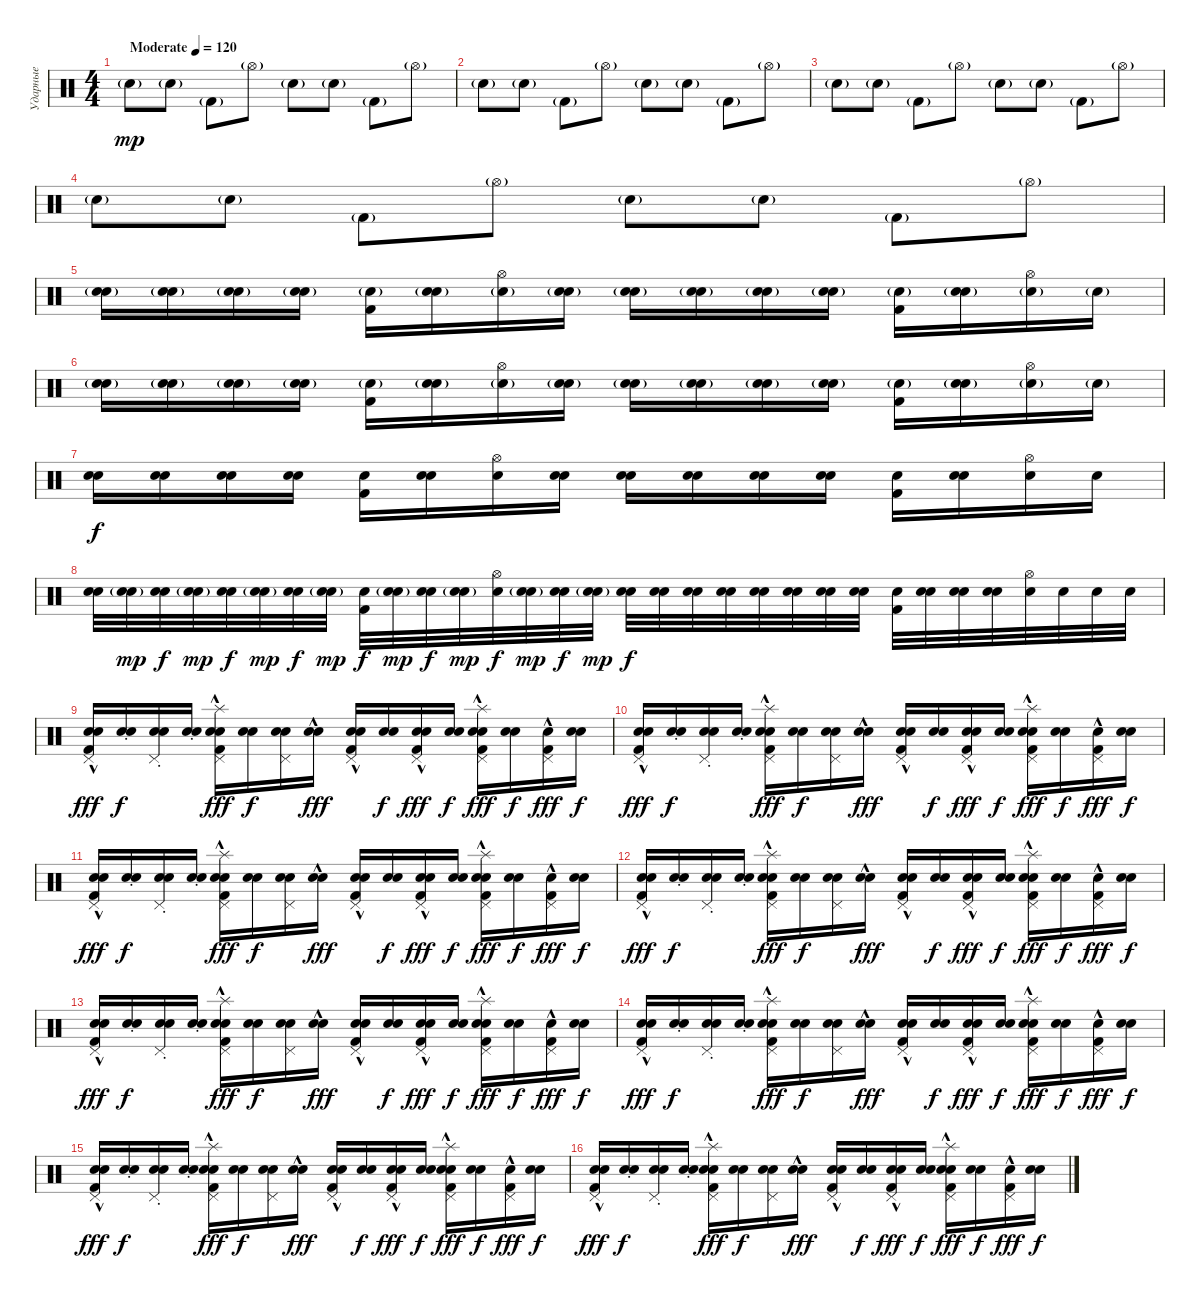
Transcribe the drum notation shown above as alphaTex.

\track ("Ударные" "Ударные") {instrument percussion}
\staff {score}
\articulation defaults
\ts (4 4)
\tempo (120 "Moderate")
\clef neutral
\ks c "Snare (hit) 2"{g}.8{dy mp} "Snare (hit)"{g}.8 "Kick (hit) 2"{g}.8 "Hi-Hat (open)"{g}.8 "Snare (hit) 2"{g}.8 "Snare (hit)"{g}.8 "Kick (hit) 2"{g}.8 "Hi-Hat (open)"{g}.8
|
"Snare (hit) 2"{g}.8 "Snare (hit)"{g}.8 "Kick (hit) 2"{g}.8 "Hi-Hat (open)"{g}.8 "Snare (hit) 2"{g}.8 "Snare (hit)"{g}.8 "Kick (hit) 2"{g}.8 "Hi-Hat (open)"{g}.8 |
"Snare (hit) 2"{g}.8 "Snare (hit)"{g}.8 "Kick (hit) 2"{g}.8 "Hi-Hat (open)"{g}.8 "Snare (hit) 2"{g}.8 "Snare (hit)"{g}.8 "Kick (hit) 2"{g}.8 "Hi-Hat (open)"{g}.8 |
"Snare (hit) 2"{g}.8 "Snare (hit)"{g}.8 "Kick (hit) 2"{g}.8 "Hi-Hat (open)"{g}.8 "Snare (hit) 2"{g}.8 "Snare (hit)"{g}.8 "Kick (hit) 2"{g}.8 "Hi-Hat (open)"{g}.8 |
("Electric Snare (hit)"{g} "Snare (hit) 2").16 ("Electric Snare (hit)"{g} "Snare (hit)").16 ("Electric Snare (hit)"{g} "Snare (hit)").16 ("Electric Snare (hit)"{g} "Snare (hit)").16 ("Electric Snare (hit)"{g} "Kick (hit) 2").16 ("Electric Snare (hit)"{g} "Snare (hit)").16 ("Electric Snare (hit)"{g} "Hi-Hat (open)").16 ("Electric Snare (hit)"{g} "Snare (hit)").16 ("Electric Snare (hit)"{g} "Snare (hit) 2").16 ("Electric Snare (hit)"{g} "Snare (hit)").16 ("Electric Snare (hit)"{g} "Snare (hit)").16 ("Electric Snare (hit)"{g} "Snare (hit)").16 ("Electric Snare (hit)"{g} "Kick (hit) 2").16 ("Electric Snare (hit)"{g} "Snare (hit)").16 ("Electric Snare (hit)"{g} "Hi-Hat (open)").16 "Electric Snare (hit)"{g}.16 |
("Electric Snare (hit)"{g} "Snare (hit) 2").16 ("Electric Snare (hit)"{g} "Snare (hit)").16 ("Electric Snare (hit)"{g} "Snare (hit)").16 ("Electric Snare (hit)"{g} "Snare (hit)").16 ("Electric Snare (hit)"{g} "Kick (hit) 2").16 ("Electric Snare (hit)"{g} "Snare (hit)").16 ("Electric Snare (hit)"{g} "Hi-Hat (open)").16 ("Electric Snare (hit)"{g} "Snare (hit)").16 ("Electric Snare (hit)"{g} "Snare (hit) 2").16 ("Electric Snare (hit)"{g} "Snare (hit)").16 ("Electric Snare (hit)"{g} "Snare (hit)").16 ("Electric Snare (hit)"{g} "Snare (hit)").16 ("Electric Snare (hit)"{g} "Kick (hit) 2").16 ("Electric Snare (hit)"{g} "Snare (hit)").16 ("Electric Snare (hit)"{g} "Hi-Hat (open)").16 "Electric Snare (hit)"{g}.16 |
("Electric Snare (hit)" "Snare (hit) 2").16{dy f} ("Electric Snare (hit)" "Snare (hit)").16 ("Electric Snare (hit)" "Snare (hit)").16 ("Electric Snare (hit)" "Snare (hit)").16 ("Electric Snare (hit)" "Kick (hit) 2").16 ("Electric Snare (hit)" "Snare (hit)").16 ("Electric Snare (hit)" "Hi-Hat (open)").16 ("Electric Snare (hit)" "Snare (hit)").16 ("Electric Snare (hit)" "Snare (hit) 2").16 ("Electric Snare (hit)" "Snare (hit)").16 ("Electric Snare (hit)" "Snare (hit)").16 ("Electric Snare (hit)" "Snare (hit)").16 ("Electric Snare (hit)" "Kick (hit) 2").16 ("Electric Snare (hit)" "Snare (hit)").16 ("Electric Snare (hit)" "Hi-Hat (open)").16 "Electric Snare (hit)".16 |
("Electric Snare (hit)" "Snare (hit) 2").32 ("Electric Snare (hit)"{g} "Snare (hit)").32{dy mp} ("Electric Snare (hit)" "Snare (hit)").32{dy f} ("Electric Snare (hit)"{g} "Snare (hit)").32{dy mp} ("Electric Snare (hit)" "Snare (hit)").32{dy f} ("Electric Snare (hit)"{g} "Snare (hit)").32{dy mp} ("Electric Snare (hit)" "Snare (hit)").32{dy f} ("Electric Snare (hit)"{g} "Snare (hit)").32{dy mp} ("Electric Snare (hit)" "Kick (hit) 2").32{dy f} ("Electric Snare (hit)"{g} "Snare (hit)").32{dy mp} ("Electric Snare (hit)" "Snare (hit)").32{dy f} ("Electric Snare (hit)"{g} "Snare (hit)").32{dy mp} ("Electric Snare (hit)" "Hi-Hat (open)").32{dy f} ("Electric Snare (hit)"{g} "Snare (hit)").32{dy mp} ("Electric Snare (hit)" "Snare (hit)").32{dy f} ("Electric Snare (hit)"{g} "Snare (hit)").32{dy mp} ("Electric Snare (hit)" "Snare (hit) 2").32{dy f} ("Electric Snare (hit)" "Snare (hit)").32 ("Electric Snare (hit)" "Snare (hit)").32 ("Electric Snare (hit)" "Snare (hit)").32 ("Electric Snare (hit)" "Snare (hit)").32 ("Electric Snare (hit)" "Snare (hit)").32 ("Electric Snare (hit)" "Snare (hit)").32 ("Electric Snare (hit)" "Snare (hit)").32 ("Electric Snare (hit)" "Kick (hit) 2").32 ("Electric Snare (hit)" "Snare (hit)").32 ("Electric Snare (hit)" "Snare (hit)").32 ("Electric Snare (hit)" "Snare (hit)").32 ("Electric Snare (hit)" "Hi-Hat (open)").32 "Electric Snare (hit)".32 "Electric Snare (hit)".32 "Electric Snare (hit)".32 |
("Electric Snare (hit)" "Pedal Hi-Hat (hit)"{hac} "Snare (hit) 2"{hac} "Kick (hit) 2"{hac}).16{dy fff} ("Electric Snare (hit)"{st} "Snare (hit)").16{dy f} ("Electric Snare (hit)"{st} "Pedal Hi-Hat (hit)" "Snare (hit)").16 ("Electric Snare (hit)"{st} "Snare (hit)").16 ("Electric Snare (hit)" "Splash (hit)" "Pedal Hi-Hat (hit)" "Snare (hit) 2"{hac} "Kick (hit) 2"{hac}).16{dy fff} ("Electric Snare (hit)" "Snare (hit)").16{dy f} ("Electric Snare (hit)" "Pedal Hi-Hat (hit)" "Snare (hit)").16 ("Electric Snare (hit)" "Snare (hit)"{hac}).16{dy fff} ("Electric Snare (hit)" "Pedal Hi-Hat (hit)" "Snare (hit) 2"{hac} "Kick (hit) 2"{hac}).16 ("Electric Snare (hit)" "Snare (hit)").16{dy f} ("Electric Snare (hit)" "Electric Snare (hit)" "Pedal Hi-Hat (hit)" "Kick (hit) 2"{hac}).16{dy fff} ("Electric Snare (hit)" "Snare (hit)").16{dy f} ("Electric Snare (hit)" "Splash (hit)"{hac} "Pedal Hi-Hat (hit)" "Snare (hit) 2"{hac} "Kick (hit) 2"{hac}).16{dy fff} ("Electric Snare (hit)" "Snare (hit)").16{dy f} ("Electric Snare (hit)" "Pedal Hi-Hat (hit)"{hac} "Kick (hit) 2"{hac}).16{dy fff} ("Electric Snare (hit)" "Snare (hit)").16{dy f} |
("Electric Snare (hit)" "Pedal Hi-Hat (hit)"{hac} "Snare (hit) 2"{hac} "Kick (hit) 2"{hac}).16{dy fff} ("Electric Snare (hit)"{st} "Snare (hit)").16{dy f} ("Electric Snare (hit)"{st} "Pedal Hi-Hat (hit)" "Snare (hit)").16 ("Electric Snare (hit)"{st} "Snare (hit)").16 ("Electric Snare (hit)" "Splash (hit)" "Pedal Hi-Hat (hit)" "Snare (hit) 2"{hac} "Kick (hit) 2"{hac}).16{dy fff} ("Electric Snare (hit)" "Snare (hit)").16{dy f} ("Electric Snare (hit)" "Pedal Hi-Hat (hit)" "Snare (hit)").16 ("Electric Snare (hit)" "Snare (hit)"{hac}).16{dy fff} ("Electric Snare (hit)" "Pedal Hi-Hat (hit)"{hac} "Snare (hit) 2"{hac} "Kick (hit) 2"{hac}).16 ("Electric Snare (hit)" "Snare (hit)").16{dy f} ("Electric Snare (hit)" "Electric Snare (hit)"{hac} "Pedal Hi-Hat (hit)"{hac} "Kick (hit) 2"{hac}).16{dy fff} ("Electric Snare (hit)" "Snare (hit)").16{dy f} ("Electric Snare (hit)" "Splash (hit)" "Pedal Hi-Hat (hit)"{hac} "Snare (hit) 2"{hac} "Kick (hit) 2"{hac}).16{dy fff} ("Electric Snare (hit)" "Snare (hit)").16{dy f} ("Electric Snare (hit)" "Pedal Hi-Hat (hit)"{hac} "Kick (hit) 2"{hac}).16{dy fff} ("Electric Snare (hit)" "Snare (hit)").16{dy f} |
("Electric Snare (hit)" "Pedal Hi-Hat (hit)"{hac} "Snare (hit) 2"{hac} "Kick (hit) 2"{hac}).16{dy fff} ("Electric Snare (hit)"{st} "Snare (hit)").16{dy f} ("Electric Snare (hit)"{st} "Pedal Hi-Hat (hit)" "Snare (hit)").16 ("Electric Snare (hit)"{st} "Snare (hit)").16 ("Electric Snare (hit)" "Splash (hit)" "Pedal Hi-Hat (hit)" "Snare (hit) 2"{hac} "Kick (hit) 2"{hac}).16{dy fff} ("Electric Snare (hit)" "Snare (hit)").16{dy f} ("Electric Snare (hit)" "Pedal Hi-Hat (hit)" "Snare (hit)").16 ("Electric Snare (hit)" "Snare (hit)"{hac}).16{dy fff} ("Electric Snare (hit)" "Pedal Hi-Hat (hit)" "Snare (hit) 2"{hac} "Kick (hit) 2"{hac}).16 ("Electric Snare (hit)" "Snare (hit)").16{dy f} ("Electric Snare (hit)" "Electric Snare (hit)" "Pedal Hi-Hat (hit)" "Kick (hit) 2"{hac}).16{dy fff} ("Electric Snare (hit)" "Snare (hit)").16{dy f} ("Electric Snare (hit)" "Splash (hit)"{hac} "Pedal Hi-Hat (hit)" "Snare (hit) 2"{hac} "Kick (hit) 2"{hac}).16{dy fff} ("Electric Snare (hit)" "Snare (hit)").16{dy f} ("Electric Snare (hit)" "Pedal Hi-Hat (hit)"{hac} "Kick (hit) 2"{hac}).16{dy fff} ("Electric Snare (hit)" "Snare (hit)").16{dy f} |
("Electric Snare (hit)" "Pedal Hi-Hat (hit)"{hac} "Snare (hit) 2"{hac} "Kick (hit) 2"{hac}).16{dy fff} ("Electric Snare (hit)"{st} "Snare (hit)").16{dy f} ("Electric Snare (hit)"{st} "Pedal Hi-Hat (hit)" "Snare (hit)").16 ("Electric Snare (hit)"{st} "Snare (hit)").16 ("Electric Snare (hit)" "Splash (hit)" "Pedal Hi-Hat (hit)" "Snare (hit) 2"{hac} "Kick (hit) 2"{hac}).16{dy fff} ("Electric Snare (hit)" "Snare (hit)").16{dy f} ("Electric Snare (hit)" "Pedal Hi-Hat (hit)" "Snare (hit)").16 ("Electric Snare (hit)" "Snare (hit)"{hac}).16{dy fff} ("Electric Snare (hit)" "Pedal Hi-Hat (hit)"{hac} "Snare (hit) 2"{hac} "Kick (hit) 2"{hac}).16 ("Electric Snare (hit)" "Snare (hit)").16{dy f} ("Electric Snare (hit)" "Electric Snare (hit)"{hac} "Pedal Hi-Hat (hit)"{hac} "Kick (hit) 2"{hac}).16{dy fff} ("Electric Snare (hit)" "Snare (hit)").16{dy f} ("Electric Snare (hit)" "Splash (hit)" "Pedal Hi-Hat (hit)"{hac} "Snare (hit) 2"{hac} "Kick (hit) 2"{hac}).16{dy fff} ("Electric Snare (hit)" "Snare (hit)").16{dy f} ("Electric Snare (hit)" "Pedal Hi-Hat (hit)"{hac} "Kick (hit) 2"{hac}).16{dy fff} ("Electric Snare (hit)" "Snare (hit)").16{dy f} |
("Electric Snare (hit)" "Pedal Hi-Hat (hit)"{hac} "Snare (hit) 2"{hac} "Kick (hit) 2"{hac}).16{dy fff} ("Electric Snare (hit)"{st} "Snare (hit)").16{dy f} ("Electric Snare (hit)"{st} "Pedal Hi-Hat (hit)" "Snare (hit)").16 ("Electric Snare (hit)"{st} "Snare (hit)").16 ("Electric Snare (hit)" "Splash (hit)" "Pedal Hi-Hat (hit)" "Snare (hit) 2"{hac} "Kick (hit) 2"{hac}).16{dy fff} ("Electric Snare (hit)" "Snare (hit)").16{dy f} ("Electric Snare (hit)" "Pedal Hi-Hat (hit)" "Snare (hit)").16 ("Electric Snare (hit)" "Snare (hit)"{hac}).16{dy fff} ("Electric Snare (hit)" "Pedal Hi-Hat (hit)" "Snare (hit) 2"{hac} "Kick (hit) 2"{hac}).16 ("Electric Snare (hit)" "Snare (hit)").16{dy f} ("Electric Snare (hit)" "Electric Snare (hit)" "Pedal Hi-Hat (hit)" "Kick (hit) 2"{hac}).16{dy fff} ("Electric Snare (hit)" "Snare (hit)").16{dy f} ("Electric Snare (hit)" "Splash (hit)"{hac} "Pedal Hi-Hat (hit)" "Snare (hit) 2"{hac} "Kick (hit) 2"{hac}).16{dy fff} ("Electric Snare (hit)" "Snare (hit)").16{dy f} ("Electric Snare (hit)" "Pedal Hi-Hat (hit)"{hac} "Kick (hit) 2"{hac}).16{dy fff} ("Electric Snare (hit)" "Snare (hit)").16{dy f} |
("Electric Snare (hit)" "Pedal Hi-Hat (hit)"{hac} "Snare (hit) 2"{hac} "Kick (hit) 2"{hac}).16{dy fff} ("Electric Snare (hit)"{st} "Snare (hit)").16{dy f} ("Electric Snare (hit)"{st} "Pedal Hi-Hat (hit)" "Snare (hit)").16 ("Electric Snare (hit)"{st} "Snare (hit)").16 ("Electric Snare (hit)" "Splash (hit)" "Pedal Hi-Hat (hit)" "Snare (hit) 2"{hac} "Kick (hit) 2"{hac}).16{dy fff} ("Electric Snare (hit)" "Snare (hit)").16{dy f} ("Electric Snare (hit)" "Pedal Hi-Hat (hit)" "Snare (hit)").16 ("Electric Snare (hit)" "Snare (hit)"{hac}).16{dy fff} ("Electric Snare (hit)" "Pedal Hi-Hat (hit)"{hac} "Snare (hit) 2"{hac} "Kick (hit) 2"{hac}).16 ("Electric Snare (hit)" "Snare (hit)").16{dy f} ("Electric Snare (hit)" "Electric Snare (hit)"{hac} "Pedal Hi-Hat (hit)"{hac} "Kick (hit) 2"{hac}).16{dy fff} ("Electric Snare (hit)" "Snare (hit)").16{dy f} ("Electric Snare (hit)" "Splash (hit)" "Pedal Hi-Hat (hit)"{hac} "Snare (hit) 2"{hac} "Kick (hit) 2"{hac}).16{dy fff} ("Electric Snare (hit)" "Snare (hit)").16{dy f} ("Electric Snare (hit)" "Pedal Hi-Hat (hit)"{hac} "Kick (hit) 2"{hac}).16{dy fff} ("Electric Snare (hit)" "Snare (hit)").16{dy f} |
("Electric Snare (hit)" "Pedal Hi-Hat (hit)"{hac} "Snare (hit) 2"{hac} "Kick (hit) 2"{hac}).16{dy fff} ("Electric Snare (hit)"{st} "Snare (hit)").16{dy f} ("Electric Snare (hit)"{st} "Pedal Hi-Hat (hit)" "Snare (hit)").16 ("Electric Snare (hit)"{st} "Snare (hit)").16 ("Electric Snare (hit)" "Splash (hit)" "Pedal Hi-Hat (hit)" "Snare (hit) 2"{hac} "Kick (hit) 2"{hac}).16{dy fff} ("Electric Snare (hit)" "Snare (hit)").16{dy f} ("Electric Snare (hit)" "Pedal Hi-Hat (hit)" "Snare (hit)").16 ("Electric Snare (hit)" "Snare (hit)"{hac}).16{dy fff} ("Electric Snare (hit)" "Pedal Hi-Hat (hit)" "Snare (hit) 2"{hac} "Kick (hit) 2"{hac}).16 ("Electric Snare (hit)" "Snare (hit)").16{dy f} ("Electric Snare (hit)" "Electric Snare (hit)" "Pedal Hi-Hat (hit)" "Kick (hit) 2"{hac}).16{dy fff} ("Electric Snare (hit)" "Snare (hit)").16{dy f} ("Electric Snare (hit)" "Splash (hit)"{hac} "Pedal Hi-Hat (hit)" "Snare (hit) 2"{hac} "Kick (hit) 2"{hac}).16{dy fff} ("Electric Snare (hit)" "Snare (hit)").16{dy f} ("Electric Snare (hit)" "Pedal Hi-Hat (hit)"{hac} "Kick (hit) 2"{hac}).16{dy fff} ("Electric Snare (hit)" "Snare (hit)").16{dy f} |
("Electric Snare (hit)" "Pedal Hi-Hat (hit)"{hac} "Snare (hit) 2"{hac} "Kick (hit) 2"{hac}).16{dy fff} ("Electric Snare (hit)"{st} "Snare (hit)").16{dy f} ("Electric Snare (hit)"{st} "Pedal Hi-Hat (hit)" "Snare (hit)").16 ("Electric Snare (hit)"{st} "Snare (hit)").16 ("Electric Snare (hit)" "Splash (hit)" "Pedal Hi-Hat (hit)" "Snare (hit) 2"{hac} "Kick (hit) 2"{hac}).16{dy fff} ("Electric Snare (hit)" "Snare (hit)").16{dy f} ("Electric Snare (hit)" "Pedal Hi-Hat (hit)" "Snare (hit)").16 ("Electric Snare (hit)" "Snare (hit)"{hac}).16{dy fff} ("Electric Snare (hit)" "Pedal Hi-Hat (hit)"{hac} "Snare (hit) 2"{hac} "Kick (hit) 2"{hac}).16 ("Electric Snare (hit)" "Snare (hit)").16{dy f} ("Electric Snare (hit)" "Electric Snare (hit)"{hac} "Pedal Hi-Hat (hit)"{hac} "Kick (hit) 2"{hac}).16{dy fff} ("Electric Snare (hit)" "Snare (hit)").16{dy f} ("Electric Snare (hit)" "Splash (hit)" "Pedal Hi-Hat (hit)"{hac} "Snare (hit) 2"{hac} "Kick (hit) 2"{hac}).16{dy fff} ("Electric Snare (hit)" "Snare (hit)").16{dy f} ("Electric Snare (hit)" "Pedal Hi-Hat (hit)"{hac} "Kick (hit) 2"{hac}).16{dy fff} ("Electric Snare (hit)" "Snare (hit)").16{dy f}
